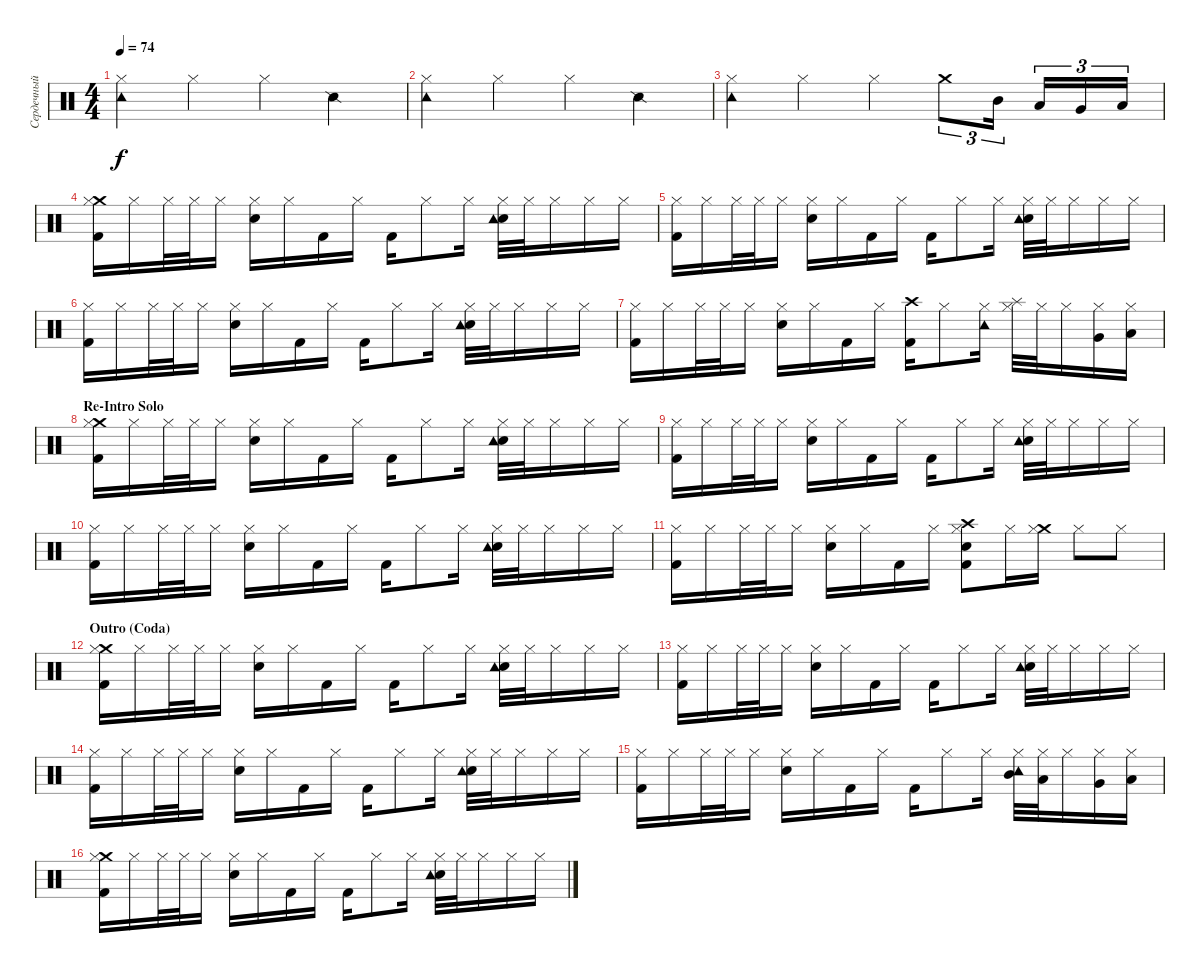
\track ("Сердечный (Ударные)" "Сердечный ") {instrument percussion}
\staff {score}
\articulation defaults
\ts (4 4)
\tempo 74
\clef neutral
\ks c
("Tambourine (hit)" "Hi-Hat (closed)").4{dy f} "Hi-Hat (closed)".4 "Hi-Hat (closed)".4 "Snare (side stick) 2".4 |
("Tambourine (hit)" "Hi-Hat (closed)").4 "Hi-Hat (closed)".4 "Hi-Hat (closed)".4 "Snare (side stick) 2".4 |
("Tambourine (hit)" "Hi-Hat (closed)").4 "Hi-Hat (closed)".4 "Hi-Hat (closed)".4 "Crash medium (hit)".8{tu (3 2)} "Mid Tom (hit)".16{tu (3 2)} "Low Tom (hit)".16{tu (3 2)} "Very Low Tom (hit)".16{tu (3 2)} "Low Floor Tom (hit)".16{tu (3 2)} |
("Kick (hit) 2" "Crash medium (hit)" "Hi-Hat (closed)").16 "Hi-Hat (closed)".16 "Hi-Hat (closed)".32 "Hi-Hat (closed)".32 "Hi-Hat (closed)".16 ("Electric Snare (hit)" "Hi-Hat (closed)").16 "Hi-Hat (closed)".16 "Kick (hit) 2".16 "Hi-Hat (closed)".16 "Kick (hit) 2".16 "Hi-Hat (closed)".8 "Hi-Hat (closed)".16 ("Electric Snare (hit)" "Tambourine (hit)" "Hi-Hat (closed)").32 "Hi-Hat (closed)".32 "Hi-Hat (closed)".16 "Hi-Hat (closed)".16 "Hi-Hat (closed)".16 |
("Kick (hit) 2" "Hi-Hat (closed)").16 "Hi-Hat (closed)".16 "Hi-Hat (closed)".32 "Hi-Hat (closed)".32 "Hi-Hat (closed)".16 ("Electric Snare (hit)" "Hi-Hat (closed)").16 "Hi-Hat (closed)".16 "Kick (hit) 2".16 "Hi-Hat (closed)".16 "Kick (hit) 2".16 "Hi-Hat (closed)".8 "Hi-Hat (closed)".16 ("Electric Snare (hit)" "Tambourine (hit)" "Hi-Hat (closed)").32 "Hi-Hat (closed)".32 "Hi-Hat (closed)".16 "Hi-Hat (closed)".16 "Hi-Hat (closed)".16 |
("Kick (hit) 2" "Hi-Hat (closed)").16 "Hi-Hat (closed)".16 "Hi-Hat (closed)".32 "Hi-Hat (closed)".32 "Hi-Hat (closed)".16 ("Electric Snare (hit)" "Hi-Hat (closed)").16 "Hi-Hat (closed)".16 "Kick (hit) 2".16 "Hi-Hat (closed)".16 "Kick (hit) 2".16 "Hi-Hat (closed)".8 "Hi-Hat (closed)".16 ("Electric Snare (hit)" "Tambourine (hit)" "Hi-Hat (closed)").32 "Hi-Hat (closed)".32 "Hi-Hat (closed)".16 "Hi-Hat (closed)".16 "Hi-Hat (closed)".16 |
("Kick (hit) 2" "Hi-Hat (closed)").16 "Hi-Hat (closed)".16 "Hi-Hat (closed)".32 "Hi-Hat (closed)".32 "Hi-Hat (closed)".16 ("Electric Snare (hit)" "Hi-Hat (closed)").16 "Hi-Hat (closed)".16 "Kick (hit) 2".16 "Hi-Hat (closed)".16 ("Kick (hit) 2" "Crash high (hit)").16 "Hi-Hat (closed)".8 ("Tambourine (hit)" "Hi-Hat (closed)").16 ("Splash (hit)" "Hi-Hat (closed)").32 "Hi-Hat (closed)".32 "Hi-Hat (closed)".16 ("Very Low Tom (hit)" "Hi-Hat (closed)").16 ("Low Floor Tom (hit)" "Hi-Hat (closed)").16 |
\section ("" "Re-Intro Solo")
("Kick (hit) 2" "Crash medium (hit)" "Hi-Hat (closed)").16 "Hi-Hat (closed)".16 "Hi-Hat (closed)".32 "Hi-Hat (closed)".32 "Hi-Hat (closed)".16 ("Electric Snare (hit)" "Hi-Hat (closed)").16 "Hi-Hat (closed)".16 "Kick (hit) 2".16 "Hi-Hat (closed)".16 "Kick (hit) 2".16 "Hi-Hat (closed)".8 "Hi-Hat (closed)".16 ("Electric Snare (hit)" "Tambourine (hit)" "Hi-Hat (closed)").32 "Hi-Hat (closed)".32 "Hi-Hat (closed)".16 "Hi-Hat (closed)".16 "Hi-Hat (closed)".16 |
("Kick (hit) 2" "Hi-Hat (closed)").16 "Hi-Hat (closed)".16 "Hi-Hat (closed)".32 "Hi-Hat (closed)".32 "Hi-Hat (closed)".16 ("Electric Snare (hit)" "Hi-Hat (closed)").16 "Hi-Hat (closed)".16 "Kick (hit) 2".16 "Hi-Hat (closed)".16 "Kick (hit) 2".16 "Hi-Hat (closed)".8 "Hi-Hat (closed)".16 ("Electric Snare (hit)" "Tambourine (hit)" "Hi-Hat (closed)").32 "Hi-Hat (closed)".32 "Hi-Hat (closed)".16 "Hi-Hat (closed)".16 "Hi-Hat (closed)".16 |
("Kick (hit) 2" "Hi-Hat (closed)").16 "Hi-Hat (closed)".16 "Hi-Hat (closed)".32 "Hi-Hat (closed)".32 "Hi-Hat (closed)".16 ("Electric Snare (hit)" "Hi-Hat (closed)").16 "Hi-Hat (closed)".16 "Kick (hit) 2".16 "Hi-Hat (closed)".16 "Kick (hit) 2".16 "Hi-Hat (closed)".8 "Hi-Hat (closed)".16 ("Electric Snare (hit)" "Tambourine (hit)" "Hi-Hat (closed)").32 "Hi-Hat (closed)".32 "Hi-Hat (closed)".16 "Hi-Hat (closed)".16 "Hi-Hat (closed)".16 |
("Kick (hit) 2" "Hi-Hat (closed)").16 "Hi-Hat (closed)".16 "Hi-Hat (closed)".32 "Hi-Hat (closed)".32 "Hi-Hat (closed)".16 ("Electric Snare (hit)" "Hi-Hat (closed)").16 "Hi-Hat (closed)".16 "Kick (hit) 2".16 "Hi-Hat (closed)".16 ("Kick (hit) 2" "Electric Snare (hit)" "Crash high (hit)" "Hi-Hat (closed)").8 "Hi-Hat (closed)".16 ("Crash medium (hit)" "Hi-Hat (closed)").16 "Hi-Hat (closed)".8 "Hi-Hat (closed)".8 |
\section ("" "Outro (Coda)")
("Kick (hit) 2" "Crash medium (hit)" "Hi-Hat (closed)").16 "Hi-Hat (closed)".16 "Hi-Hat (closed)".32 "Hi-Hat (closed)".32 "Hi-Hat (closed)".16 ("Electric Snare (hit)" "Hi-Hat (closed)").16 "Hi-Hat (closed)".16 "Kick (hit) 2".16 "Hi-Hat (closed)".16 "Kick (hit) 2".16 "Hi-Hat (closed)".8 "Hi-Hat (closed)".16 ("Electric Snare (hit)" "Tambourine (hit)" "Hi-Hat (closed)").32 "Hi-Hat (closed)".32 "Hi-Hat (closed)".16 "Hi-Hat (closed)".16 "Hi-Hat (closed)".16 |
("Kick (hit) 2" "Hi-Hat (closed)").16 "Hi-Hat (closed)".16 "Hi-Hat (closed)".32 "Hi-Hat (closed)".32 "Hi-Hat (closed)".16 ("Electric Snare (hit)" "Hi-Hat (closed)").16 "Hi-Hat (closed)".16 "Kick (hit) 2".16 "Hi-Hat (closed)".16 "Kick (hit) 2".16 "Hi-Hat (closed)".8 "Hi-Hat (closed)".16 ("Electric Snare (hit)" "Tambourine (hit)" "Hi-Hat (closed)").32 "Hi-Hat (closed)".32 "Hi-Hat (closed)".16 "Hi-Hat (closed)".16 "Hi-Hat (closed)".16 |
("Kick (hit) 2" "Hi-Hat (closed)").16 "Hi-Hat (closed)".16 "Hi-Hat (closed)".32 "Hi-Hat (closed)".32 "Hi-Hat (closed)".16 ("Electric Snare (hit)" "Hi-Hat (closed)").16 "Hi-Hat (closed)".16 "Kick (hit) 2".16 "Hi-Hat (closed)".16 "Kick (hit) 2".16 "Hi-Hat (closed)".8 "Hi-Hat (closed)".16 ("Electric Snare (hit)" "Tambourine (hit)" "Hi-Hat (closed)").32 "Hi-Hat (closed)".32 "Hi-Hat (closed)".16 "Hi-Hat (closed)".16 "Hi-Hat (closed)".16 |
("Kick (hit) 2" "Hi-Hat (closed)").16 "Hi-Hat (closed)".16 "Hi-Hat (closed)".32 "Hi-Hat (closed)".32 "Hi-Hat (closed)".16 ("Electric Snare (hit)" "Hi-Hat (closed)").16 "Hi-Hat (closed)".16 "Kick (hit) 2".16 "Hi-Hat (closed)".16 "Kick (hit) 2".16 "Hi-Hat (closed)".8 "Hi-Hat (closed)".16 ("Mid Tom (hit)" "Tambourine (hit)" "Hi-Hat (closed)").32 ("Low Tom (hit)" "Hi-Hat (closed)").32 "Hi-Hat (closed)".16 ("Very Low Tom (hit)" "Hi-Hat (closed)").16 ("Low Floor Tom (hit)" "Hi-Hat (closed)").16 |
("Kick (hit) 2" "Crash medium (hit)" "Hi-Hat (closed)").16 "Hi-Hat (closed)".16 "Hi-Hat (closed)".32 "Hi-Hat (closed)".32 "Hi-Hat (closed)".16 ("Electric Snare (hit)" "Hi-Hat (closed)").16 "Hi-Hat (closed)".16 "Kick (hit) 2".16 "Hi-Hat (closed)".16 "Kick (hit) 2".16 "Hi-Hat (closed)".8 "Hi-Hat (closed)".16 ("Electric Snare (hit)" "Tambourine (hit)" "Hi-Hat (closed)").32 "Hi-Hat (closed)".32 "Hi-Hat (closed)".16 "Hi-Hat (closed)".16 "Hi-Hat (closed)".16
